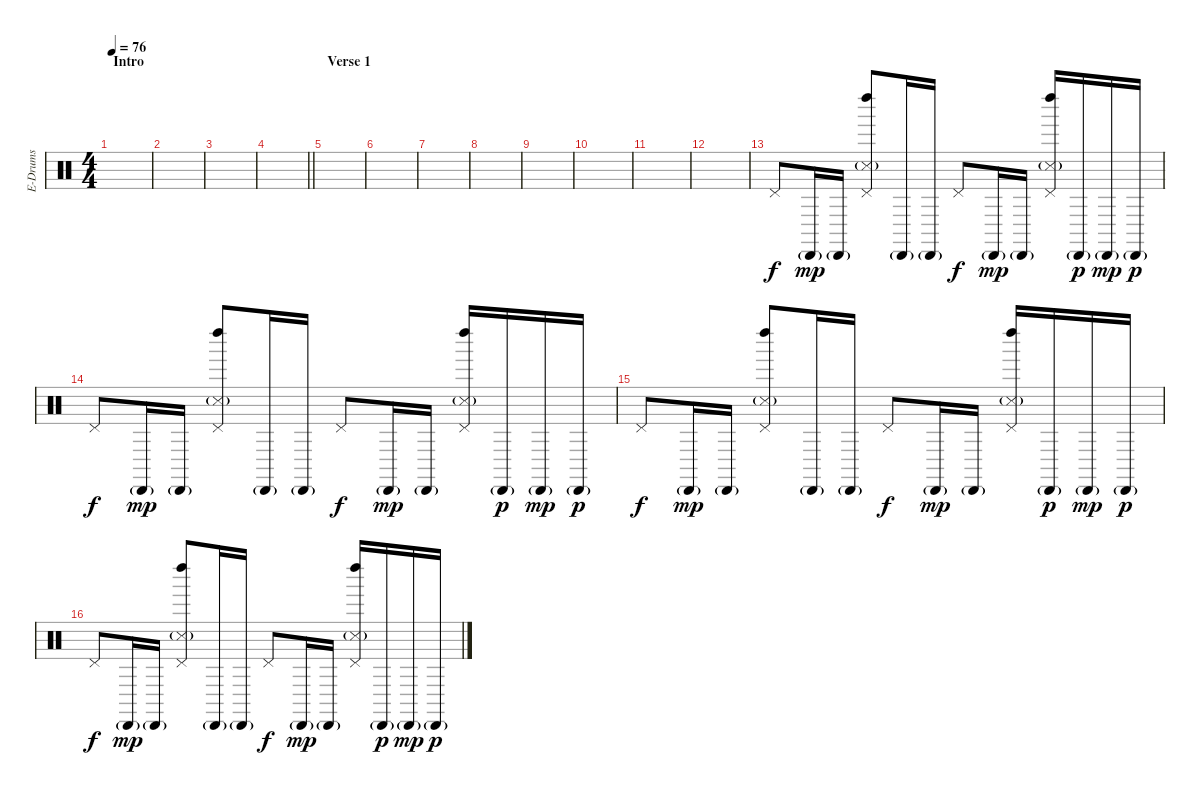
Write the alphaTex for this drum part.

\track ("E-Drums" "E-Drums") {instrument percussion}
\staff {score}
\articulation defaults
\ts (4 4)
\section ("" "Intro")
\tempo 76
\clef neutral
\ks c
|
|
|
\barLineRight lightlight
|
\section ("" "Verse 1")
|
|
|
|
|
|
|
|
"Pedal Hi-Hat (hit)".8 "Cabasa (hit)"{g}.16{dy mp} "Cabasa (hit)"{g}.16 ("Left Maraca (hit)" "Pedal Hi-Hat (hit)" "Snare (side stick) 3"{g}).8 "Cabasa (hit)"{g}.16 "Cabasa (hit)"{g}.16 "Pedal Hi-Hat (hit)".8{dy f} "Cabasa (hit)"{g}.16{dy mp} "Cabasa (hit)"{g}.16 ("Left Maraca (hit)" "Pedal Hi-Hat (hit)" "Snare (side stick) 3"{g}).16 "Cabasa (hit)"{g}.16{dy p} "Cabasa (hit)"{g}.16{dy mp} "Cabasa (hit)"{g}.16{dy p} |
"Pedal Hi-Hat (hit)".8{dy f} "Cabasa (hit)"{g}.16{dy mp} "Cabasa (hit)"{g}.16 ("Left Maraca (hit)" "Pedal Hi-Hat (hit)" "Snare (side stick) 3"{g}).8 "Cabasa (hit)"{g}.16 "Cabasa (hit)"{g}.16 "Pedal Hi-Hat (hit)".8{dy f} "Cabasa (hit)"{g}.16{dy mp} "Cabasa (hit)"{g}.16 ("Left Maraca (hit)" "Pedal Hi-Hat (hit)" "Snare (side stick) 3"{g}).16 "Cabasa (hit)"{g}.16{dy p} "Cabasa (hit)"{g}.16{dy mp} "Cabasa (hit)"{g}.16{dy p} |
"Pedal Hi-Hat (hit)".8{dy f} "Cabasa (hit)"{g}.16{dy mp} "Cabasa (hit)"{g}.16 ("Left Maraca (hit)" "Pedal Hi-Hat (hit)" "Snare (side stick) 3"{g}).8 "Cabasa (hit)"{g}.16 "Cabasa (hit)"{g}.16 "Pedal Hi-Hat (hit)".8{dy f} "Cabasa (hit)"{g}.16{dy mp} "Cabasa (hit)"{g}.16 ("Left Maraca (hit)" "Pedal Hi-Hat (hit)" "Snare (side stick) 3"{g}).16 "Cabasa (hit)"{g}.16{dy p} "Cabasa (hit)"{g}.16{dy mp} "Cabasa (hit)"{g}.16{dy p} |
"Pedal Hi-Hat (hit)".8{dy f} "Cabasa (hit)"{g}.16{dy mp} "Cabasa (hit)"{g}.16 ("Left Maraca (hit)" "Pedal Hi-Hat (hit)" "Snare (side stick) 3"{g}).8 "Cabasa (hit)"{g}.16 "Cabasa (hit)"{g}.16 "Pedal Hi-Hat (hit)".8{dy f} "Cabasa (hit)"{g}.16{dy mp} "Cabasa (hit)"{g}.16 ("Left Maraca (hit)" "Pedal Hi-Hat (hit)" "Snare (side stick) 3"{g}).16 "Cabasa (hit)"{g}.16{dy p} "Cabasa (hit)"{g}.16{dy mp} "Cabasa (hit)"{g}.16{dy p}
